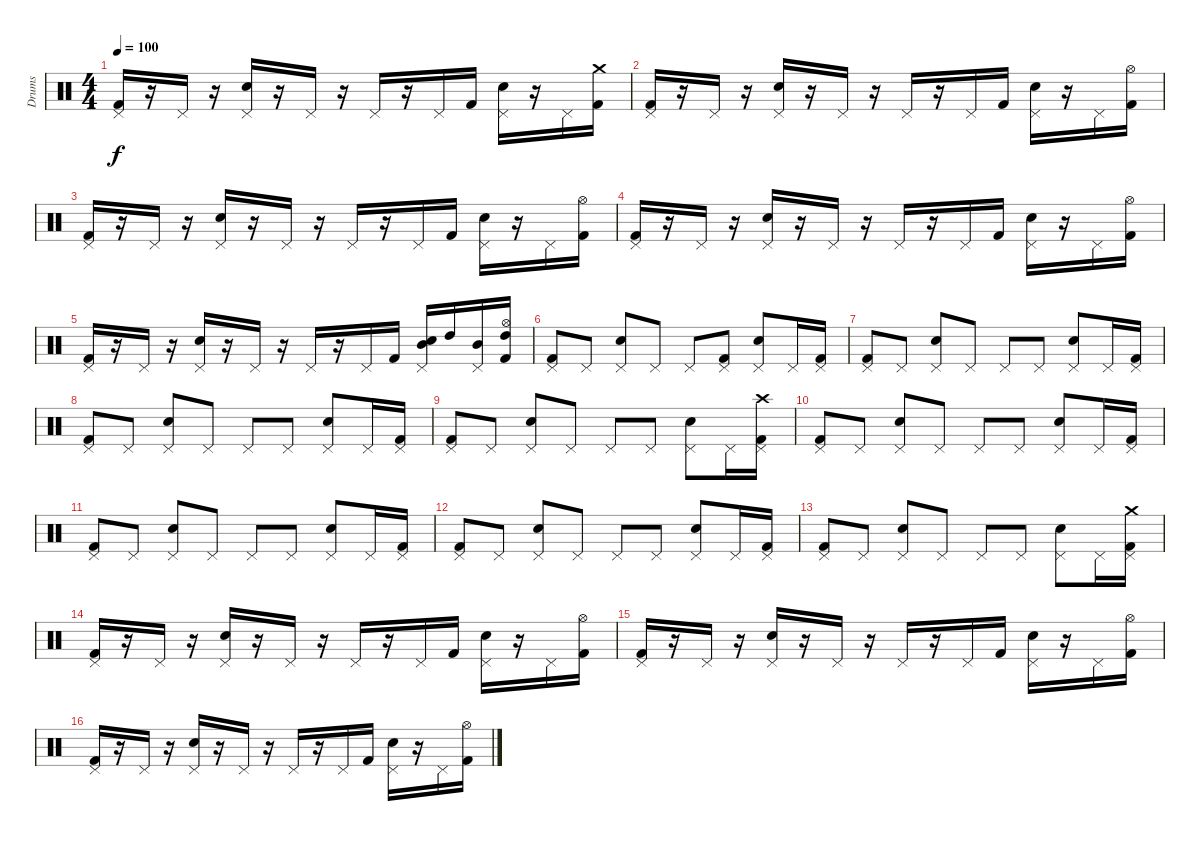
\track ("Drums" "Drums") {instrument percussion}
\staff {score}
\articulation defaults
\ts (4 4)
\tempo 100
\clef neutral
\ks c
("Pedal Hi-Hat (hit)" "Kick (hit) 2").16{dy f} r.16 "Pedal Hi-Hat (hit)".16 r.16 ("Pedal Hi-Hat (hit)" "Snare (hit) 2").16 r.16 "Pedal Hi-Hat (hit)".16 r.16 "Pedal Hi-Hat (hit)".16 r.16 "Pedal Hi-Hat (hit)".16 "Kick (hit) 2".16 ("Pedal Hi-Hat (hit)" "Snare (hit) 2").16 r.16 "Pedal Hi-Hat (hit)".16 ("Crash medium (hit)" "Kick (hit) 2").16 |
("Pedal Hi-Hat (hit)" "Kick (hit) 2").16 r.16 "Pedal Hi-Hat (hit)".16 r.16 ("Pedal Hi-Hat (hit)" "Snare (hit) 2").16 r.16 "Pedal Hi-Hat (hit)".16 r.16 "Pedal Hi-Hat (hit)".16 r.16 "Pedal Hi-Hat (hit)".16 "Kick (hit) 2".16 ("Pedal Hi-Hat (hit)" "Snare (hit) 2").16 r.16 "Pedal Hi-Hat (hit)".16 ("Hi-Hat (open)" "Kick (hit) 2").16 |
("Pedal Hi-Hat (hit)" "Kick (hit) 2").16 r.16 "Pedal Hi-Hat (hit)".16 r.16 ("Pedal Hi-Hat (hit)" "Snare (hit) 2").16 r.16 "Pedal Hi-Hat (hit)".16 r.16 "Pedal Hi-Hat (hit)".16 r.16 "Pedal Hi-Hat (hit)".16 "Kick (hit) 2".16 ("Pedal Hi-Hat (hit)" "Snare (hit) 2").16 r.16 "Pedal Hi-Hat (hit)".16 ("Hi-Hat (open)" "Kick (hit) 2").16 |
("Pedal Hi-Hat (hit)" "Kick (hit) 2").16 r.16 "Pedal Hi-Hat (hit)".16 r.16 ("Pedal Hi-Hat (hit)" "Snare (hit) 2").16 r.16 "Pedal Hi-Hat (hit)".16 r.16 "Pedal Hi-Hat (hit)".16 r.16 "Pedal Hi-Hat (hit)".16 "Kick (hit) 2".16 ("Pedal Hi-Hat (hit)" "Snare (hit) 2").16 r.16 "Pedal Hi-Hat (hit)".16 ("Hi-Hat (open)" "Kick (hit) 2").16 |
("Pedal Hi-Hat (hit)" "Kick (hit) 2").16 r.16 "Pedal Hi-Hat (hit)".16 r.16 ("Pedal Hi-Hat (hit)" "Snare (hit) 2").16 r.16 "Pedal Hi-Hat (hit)".16 r.16 "Pedal Hi-Hat (hit)".16 r.16 "Pedal Hi-Hat (hit)".16 "Kick (hit) 2".16 ("Pedal Hi-Hat (hit)" "Mid Tom (hit)" "Snare (hit) 2").16 "High Tom (hit)".16 ("Pedal Hi-Hat (hit)" "Mid Tom (hit)").16 ("Hi-Hat (open)" "Kick (hit) 2" "High Tom (hit)").16 |
("Pedal Hi-Hat (hit)" "Kick (hit) 2").8 "Pedal Hi-Hat (hit)".8 ("Pedal Hi-Hat (hit)" "Snare (hit) 2").8 "Pedal Hi-Hat (hit)".8 "Pedal Hi-Hat (hit)".8 ("Pedal Hi-Hat (hit)" "Kick (hit) 2").8 ("Pedal Hi-Hat (hit)" "Snare (hit) 2").8 "Pedal Hi-Hat (hit)".16 ("Pedal Hi-Hat (hit)" "Kick (hit) 2").16 |
("Pedal Hi-Hat (hit)" "Kick (hit) 2").8 "Pedal Hi-Hat (hit)".8 ("Pedal Hi-Hat (hit)" "Snare (hit) 2").8 "Pedal Hi-Hat (hit)".8 "Pedal Hi-Hat (hit)".8 "Pedal Hi-Hat (hit)".8 ("Pedal Hi-Hat (hit)" "Snare (hit) 2").8 "Pedal Hi-Hat (hit)".16 ("Pedal Hi-Hat (hit)" "Kick (hit) 2").16 |
("Pedal Hi-Hat (hit)" "Kick (hit) 2").8 "Pedal Hi-Hat (hit)".8 ("Pedal Hi-Hat (hit)" "Snare (hit) 2").8 "Pedal Hi-Hat (hit)".8 "Pedal Hi-Hat (hit)".8 "Pedal Hi-Hat (hit)".8 ("Pedal Hi-Hat (hit)" "Snare (hit) 2").8 "Pedal Hi-Hat (hit)".16 ("Pedal Hi-Hat (hit)" "Kick (hit) 2").16 |
("Pedal Hi-Hat (hit)" "Kick (hit) 2").8 "Pedal Hi-Hat (hit)".8 ("Pedal Hi-Hat (hit)" "Snare (hit) 2").8 "Pedal Hi-Hat (hit)".8 "Pedal Hi-Hat (hit)".8 "Pedal Hi-Hat (hit)".8 ("Pedal Hi-Hat (hit)" "Snare (hit) 2").8 "Pedal Hi-Hat (hit)".16 ("Pedal Hi-Hat (hit)" "Crash high (hit)" "Kick (hit) 2").16 |
("Pedal Hi-Hat (hit)" "Kick (hit) 2").8 "Pedal Hi-Hat (hit)".8 ("Pedal Hi-Hat (hit)" "Snare (hit) 2").8 "Pedal Hi-Hat (hit)".8 "Pedal Hi-Hat (hit)".8 "Pedal Hi-Hat (hit)".8 ("Pedal Hi-Hat (hit)" "Snare (hit) 2").8 "Pedal Hi-Hat (hit)".16 ("Pedal Hi-Hat (hit)" "Kick (hit) 2").16 |
("Pedal Hi-Hat (hit)" "Kick (hit) 2").8 "Pedal Hi-Hat (hit)".8 ("Pedal Hi-Hat (hit)" "Snare (hit) 2").8 "Pedal Hi-Hat (hit)".8 "Pedal Hi-Hat (hit)".8 "Pedal Hi-Hat (hit)".8 ("Pedal Hi-Hat (hit)" "Snare (hit) 2").8 "Pedal Hi-Hat (hit)".16 ("Pedal Hi-Hat (hit)" "Kick (hit) 2").16 |
("Pedal Hi-Hat (hit)" "Kick (hit) 2").8 "Pedal Hi-Hat (hit)".8 ("Pedal Hi-Hat (hit)" "Snare (hit) 2").8 "Pedal Hi-Hat (hit)".8 "Pedal Hi-Hat (hit)".8 "Pedal Hi-Hat (hit)".8 ("Pedal Hi-Hat (hit)" "Snare (hit) 2").8 "Pedal Hi-Hat (hit)".16 ("Pedal Hi-Hat (hit)" "Kick (hit) 2").16 |
("Pedal Hi-Hat (hit)" "Kick (hit) 2").8 "Pedal Hi-Hat (hit)".8 ("Pedal Hi-Hat (hit)" "Snare (hit) 2").8 "Pedal Hi-Hat (hit)".8 "Pedal Hi-Hat (hit)".8 "Pedal Hi-Hat (hit)".8 ("Pedal Hi-Hat (hit)" "Snare (hit) 2").8 "Pedal Hi-Hat (hit)".16 ("Pedal Hi-Hat (hit)" "Crash medium (hit)" "Kick (hit) 2").16 |
("Pedal Hi-Hat (hit)" "Kick (hit) 2").16 r.16 "Pedal Hi-Hat (hit)".16 r.16 ("Pedal Hi-Hat (hit)" "Snare (hit) 2").16 r.16 "Pedal Hi-Hat (hit)".16 r.16 "Pedal Hi-Hat (hit)".16 r.16 "Pedal Hi-Hat (hit)".16 "Kick (hit) 2".16 ("Pedal Hi-Hat (hit)" "Snare (hit) 2").16 r.16 "Pedal Hi-Hat (hit)".16 ("Hi-Hat (open)" "Kick (hit) 2").16 |
("Pedal Hi-Hat (hit)" "Kick (hit) 2").16 r.16 "Pedal Hi-Hat (hit)".16 r.16 ("Pedal Hi-Hat (hit)" "Snare (hit) 2").16 r.16 "Pedal Hi-Hat (hit)".16 r.16 "Pedal Hi-Hat (hit)".16 r.16 "Pedal Hi-Hat (hit)".16 "Kick (hit) 2".16 ("Pedal Hi-Hat (hit)" "Snare (hit) 2").16 r.16 "Pedal Hi-Hat (hit)".16 ("Hi-Hat (open)" "Kick (hit) 2").16 |
("Pedal Hi-Hat (hit)" "Kick (hit) 2").16 r.16 "Pedal Hi-Hat (hit)".16 r.16 ("Pedal Hi-Hat (hit)" "Snare (hit) 2").16 r.16 "Pedal Hi-Hat (hit)".16 r.16 "Pedal Hi-Hat (hit)".16 r.16 "Pedal Hi-Hat (hit)".16 "Kick (hit) 2".16 ("Pedal Hi-Hat (hit)" "Snare (hit) 2").16 r.16 "Pedal Hi-Hat (hit)".16 ("Hi-Hat (open)" "Kick (hit) 2").16
